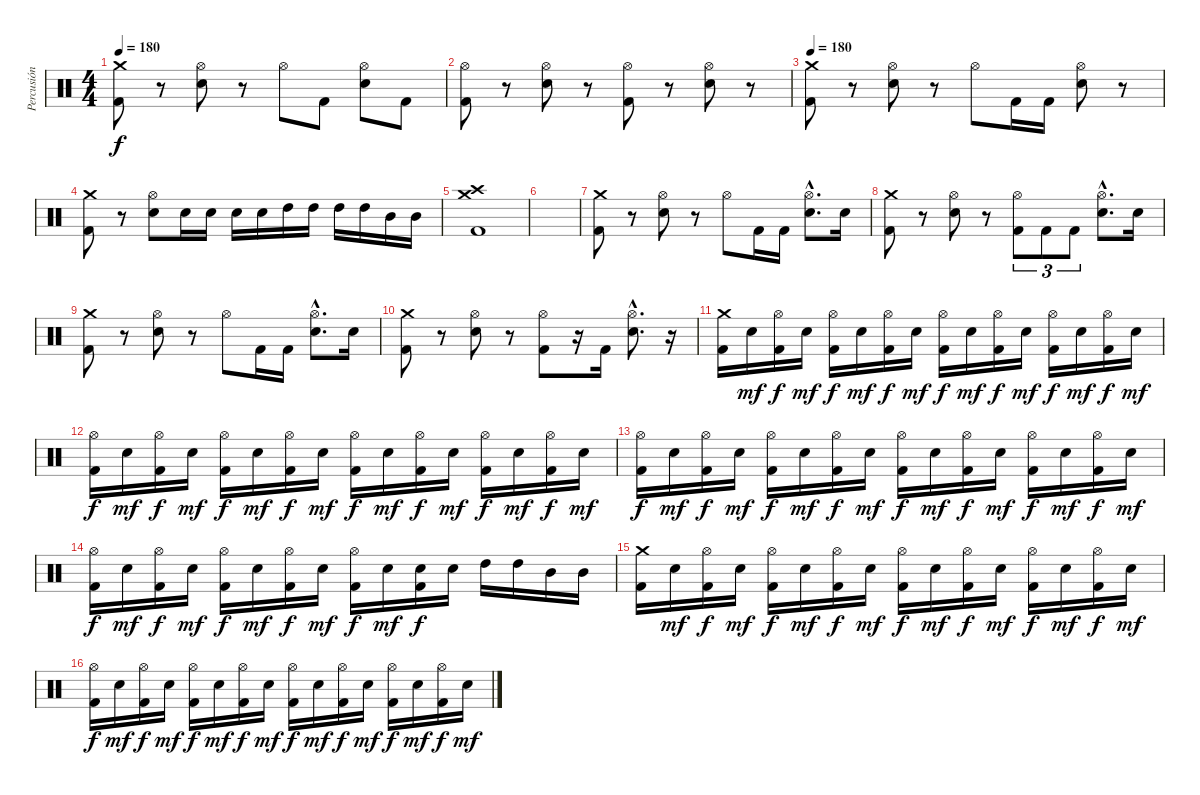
\track ("Percusión" "Percusión") {instrument percussion}
\staff {score}
\articulation defaults
\ts (4 4)
\tempo 180
\clef neutral
\ks c
("Crash medium (hit)" "Kick (hit) 2").8{dy f} r.8 ("Hi-Hat (open)" "Electric Snare (hit)").8 r.8 "Hi-Hat (open)".8 "Kick (hit) 2".8 ("Hi-Hat (open)" "Electric Snare (hit)").8 "Kick (hit) 2".8 |
("Hi-Hat (open)" "Kick (hit) 2").8 r.8 ("Hi-Hat (open)" "Electric Snare (hit)").8 r.8 ("Hi-Hat (open)" "Kick (hit) 2").8 r.8 ("Hi-Hat (open)" "Electric Snare (hit)").8 r.8 |
\tempo 180
("Crash medium (hit)" "Kick (hit) 2").8 r.8 ("Hi-Hat (open)" "Electric Snare (hit)").8 r.8 "Hi-Hat (open)".8 "Kick (hit) 2".16 "Kick (hit) 2".16 ("Hi-Hat (open)" "Electric Snare (hit)").8 r.8 |
("Crash medium (hit)" "Kick (hit) 2").8 r.8 ("Hi-Hat (open)" "Electric Snare (hit)").8 "Electric Snare (hit)".16 "Electric Snare (hit)".16 "Electric Snare (hit)".16 "Electric Snare (hit)".16 "High Tom (hit)".16 "High Tom (hit)".16 "High Tom (hit)".16 "High Tom (hit)".16 "Mid Tom (hit)".16 "Mid Tom (hit)".16 |
("Crash medium (hit)" "Crash high (hit)" "Kick (hit) 2").1 |
|
("Crash medium (hit)" "Kick (hit) 2").8 r.8 ("Hi-Hat (open)" "Electric Snare (hit)").8 r.8 "Hi-Hat (open)".8 "Kick (hit) 2".16 "Kick (hit) 2".16 ("Hi-Hat (open)"{hac} "Electric Snare (hit)"{hac}).8{d} "Electric Snare (hit)".16 |
("Crash medium (hit)" "Kick (hit) 2").8 r.8 ("Hi-Hat (open)" "Electric Snare (hit)").8 r.8 ("Hi-Hat (open)" "Kick (hit) 2").8{tu (3 2)} "Kick (hit) 2".8{tu (3 2)} "Kick (hit) 2".8{tu (3 2)} ("Hi-Hat (open)"{hac} "Electric Snare (hit)"{hac}).8{d} "Electric Snare (hit)".16 |
("Crash medium (hit)" "Kick (hit) 2").8 r.8 ("Hi-Hat (open)" "Electric Snare (hit)").8 r.8 "Hi-Hat (open)".8 "Kick (hit) 2".16 "Kick (hit) 2".16 ("Hi-Hat (open)"{hac} "Electric Snare (hit)"{hac}).8{d} "Electric Snare (hit)".16 |
("Crash medium (hit)" "Kick (hit) 2").8 r.8 ("Hi-Hat (open)" "Electric Snare (hit)").8 r.8 ("Hi-Hat (open)" "Kick (hit) 2").8 r.16 "Kick (hit) 2".16 ("Hi-Hat (open)"{hac} "Electric Snare (hit)"{hac}).8{d} r.16 |
("Crash medium (hit)" "Kick (hit) 2").16 "Electric Snare (hit)".16{dy mf} ("Hi-Hat (open)" "Kick (hit) 2").16{dy f} "Electric Snare (hit)".16{dy mf} ("Hi-Hat (open)" "Kick (hit) 2").16{dy f} "Electric Snare (hit)".16{dy mf} ("Hi-Hat (open)" "Kick (hit) 2").16{dy f} "Electric Snare (hit)".16{dy mf} ("Hi-Hat (open)" "Kick (hit) 2").16{dy f} "Electric Snare (hit)".16{dy mf} ("Hi-Hat (open)" "Kick (hit) 2").16{dy f} "Electric Snare (hit)".16{dy mf} ("Hi-Hat (open)" "Kick (hit) 2").16{dy f} "Electric Snare (hit)".16{dy mf} ("Hi-Hat (open)" "Kick (hit) 2").16{dy f} "Electric Snare (hit)".16{dy mf} |
("Hi-Hat (open)" "Kick (hit) 2").16{dy f} "Electric Snare (hit)".16{dy mf} ("Hi-Hat (open)" "Kick (hit) 2").16{dy f} "Electric Snare (hit)".16{dy mf} ("Hi-Hat (open)" "Kick (hit) 2").16{dy f} "Electric Snare (hit)".16{dy mf} ("Hi-Hat (open)" "Kick (hit) 2").16{dy f} "Electric Snare (hit)".16{dy mf} ("Hi-Hat (open)" "Kick (hit) 2").16{dy f} "Electric Snare (hit)".16{dy mf} ("Hi-Hat (open)" "Kick (hit) 2").16{dy f} "Electric Snare (hit)".16{dy mf} ("Hi-Hat (open)" "Kick (hit) 2").16{dy f} "Electric Snare (hit)".16{dy mf} ("Hi-Hat (open)" "Kick (hit) 2").16{dy f} "Electric Snare (hit)".16{dy mf} |
("Hi-Hat (open)" "Kick (hit) 2").16{dy f} "Electric Snare (hit)".16{dy mf} ("Hi-Hat (open)" "Kick (hit) 2").16{dy f} "Electric Snare (hit)".16{dy mf} ("Hi-Hat (open)" "Kick (hit) 2").16{dy f} "Electric Snare (hit)".16{dy mf} ("Hi-Hat (open)" "Kick (hit) 2").16{dy f} "Electric Snare (hit)".16{dy mf} ("Hi-Hat (open)" "Kick (hit) 2").16{dy f} "Electric Snare (hit)".16{dy mf} ("Hi-Hat (open)" "Kick (hit) 2").16{dy f} "Electric Snare (hit)".16{dy mf} ("Hi-Hat (open)" "Kick (hit) 2").16{dy f} "Electric Snare (hit)".16{dy mf} ("Hi-Hat (open)" "Kick (hit) 2").16{dy f} "Electric Snare (hit)".16{dy mf} |
("Hi-Hat (open)" "Kick (hit) 2").16{dy f} "Electric Snare (hit)".16{dy mf} ("Hi-Hat (open)" "Kick (hit) 2").16{dy f} "Electric Snare (hit)".16{dy mf} ("Hi-Hat (open)" "Kick (hit) 2").16{dy f} "Electric Snare (hit)".16{dy mf} ("Hi-Hat (open)" "Kick (hit) 2").16{dy f} "Electric Snare (hit)".16{dy mf} ("Hi-Hat (open)" "Kick (hit) 2").16{dy f} "Electric Snare (hit)".16{dy mf} ("Electric Snare (hit)" "Kick (hit) 2").16{dy f} "Electric Snare (hit)".16 "High Tom (hit)".16 "High Tom (hit)".16 "Mid Tom (hit)".16 "Mid Tom (hit)".16 |
("Crash medium (hit)" "Kick (hit) 2").16 "Electric Snare (hit)".16{dy mf} ("Hi-Hat (open)" "Kick (hit) 2").16{dy f} "Electric Snare (hit)".16{dy mf} ("Hi-Hat (open)" "Kick (hit) 2").16{dy f} "Electric Snare (hit)".16{dy mf} ("Hi-Hat (open)" "Kick (hit) 2").16{dy f} "Electric Snare (hit)".16{dy mf} ("Hi-Hat (open)" "Kick (hit) 2").16{dy f} "Electric Snare (hit)".16{dy mf} ("Hi-Hat (open)" "Kick (hit) 2").16{dy f} "Electric Snare (hit)".16{dy mf} ("Hi-Hat (open)" "Kick (hit) 2").16{dy f} "Electric Snare (hit)".16{dy mf} ("Hi-Hat (open)" "Kick (hit) 2").16{dy f} "Electric Snare (hit)".16{dy mf} |
("Hi-Hat (open)" "Kick (hit) 2").16{dy f} "Electric Snare (hit)".16{dy mf} ("Hi-Hat (open)" "Kick (hit) 2").16{dy f} "Electric Snare (hit)".16{dy mf} ("Hi-Hat (open)" "Kick (hit) 2").16{dy f} "Electric Snare (hit)".16{dy mf} ("Hi-Hat (open)" "Kick (hit) 2").16{dy f} "Electric Snare (hit)".16{dy mf} ("Hi-Hat (open)" "Kick (hit) 2").16{dy f} "Electric Snare (hit)".16{dy mf} ("Hi-Hat (open)" "Kick (hit) 2").16{dy f} "Electric Snare (hit)".16{dy mf} ("Hi-Hat (open)" "Kick (hit) 2").16{dy f} "Electric Snare (hit)".16{dy mf} ("Hi-Hat (open)" "Kick (hit) 2").16{dy f} "Electric Snare (hit)".16{dy mf}
